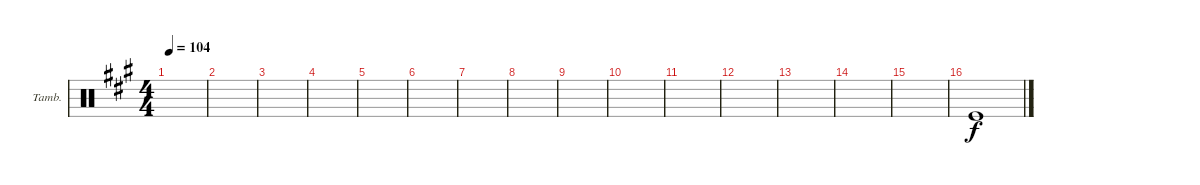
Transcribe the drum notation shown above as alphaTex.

\bracketExtendMode groupsimilarinstruments
\firstSystemTrackNameOrientation horizontal
\otherSystemsTrackNameOrientation horizontal
\track ("Tambourine" "Tamb.") {instrument percussion}
\staff {score}
\articulation defaults
\ts (4 4)
\tempo 104
\clef neutral
\ks a
|
|
|
|
|
|
|
|
|
|
|
|
|
|
|
"Kick (hit)".1
